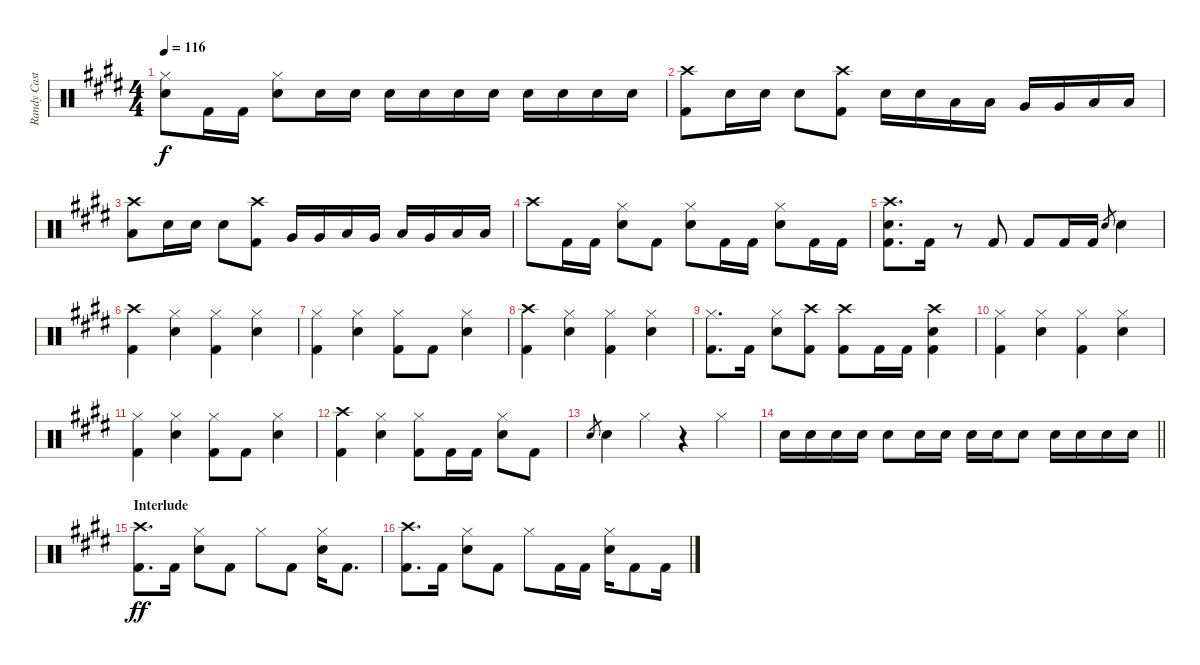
\track ("Randy Castillo" "Randy Cast") {instrument percussion}
\staff {score}
\articulation defaults
\ts (4 4)
\tempo 116
\clef neutral
\ks e
("Hi-Hat (closed)" "Snare (hit) 2").8{dy f} "Kick (hit) 2".16 "Kick (hit) 2".16 ("Hi-Hat (closed)" "Snare (hit) 2").8 "Snare (hit) 2".16 "Snare (hit) 2".16 "Snare (hit) 2".16 "Snare (hit) 2".16 "Snare (hit) 2".16 "Snare (hit) 2".16 "Snare (hit) 2".16 "Snare (hit) 2".16 "Snare (hit) 2".16 "Snare (hit) 2".16 |
("Kick (hit) 2" "Crash high (hit)").8 "Snare (hit) 2".16 "Snare (hit) 2".16 "Snare (hit) 2".8 ("Kick (hit) 2" "Crash high (hit)").8 "Snare (hit) 2".16 "Snare (hit) 2".16 "Low Tom (hit)".16 "Low Tom (hit)".16 "Very Low Tom (hit)".16 "Very Low Tom (hit)".16 "Low Floor Tom (hit)".16 "Low Floor Tom (hit)".16 |
("Low Tom (hit)" "Crash high (hit)").8 "Snare (hit) 2".16 "Snare (hit) 2".16 "Snare (hit) 2".8 ("Kick (hit) 2" "Crash high (hit)").8 "Very Low Tom (hit)".16 "Very Low Tom (hit)".16 "Low Tom (hit)".16 "Very Low Tom (hit)".16 "Low Tom (hit)".16 "Very Low Tom (hit)".16 "Low Floor Tom (hit)".16 "Low Floor Tom (hit)".16 |
"Crash high (hit)".8 "Kick (hit) 2".16 "Kick (hit) 2".16 ("Hi-Hat (closed)" "Snare (hit) 2").8 "Kick (hit) 2".8 ("Hi-Hat (closed)" "Snare (hit) 2").8 "Kick (hit) 2".16 "Kick (hit) 2".16 ("Hi-Hat (closed)" "Snare (hit) 2").8 "Kick (hit) 2".16 "Kick (hit) 2".16 |
("Snare (hit) 2" "Kick (hit) 2" "Crash high (hit)").8{d} "Kick (hit) 2".16 r.8 "Kick (hit) 2".8 "Kick (hit) 2".8 "Kick (hit) 2".16 "Kick (hit) 2".16 "Snare (hit) 2".8{gr} "Snare (hit) 2".4 |
("Kick (hit) 2" "Crash high (hit)").4 ("Hi-Hat (closed)" "Snare (hit) 2").4 ("Hi-Hat (closed)" "Kick (hit) 2").4 ("Hi-Hat (closed)" "Snare (hit) 2").4 |
("Hi-Hat (closed)" "Kick (hit) 2").4 ("Hi-Hat (closed)" "Snare (hit) 2").4 ("Hi-Hat (closed)" "Kick (hit) 2").8 "Kick (hit) 2".8 ("Hi-Hat (closed)" "Snare (hit) 2").4 |
("Kick (hit) 2" "Crash high (hit)").4 ("Hi-Hat (closed)" "Snare (hit) 2").4 ("Hi-Hat (closed)" "Kick (hit) 2").4 ("Hi-Hat (closed)" "Snare (hit) 2").4 |
("Hi-Hat (closed)" "Kick (hit) 2").8{d} "Kick (hit) 2".16 ("Hi-Hat (closed)" "Snare (hit) 2").8 ("Kick (hit) 2" "Crash high (hit)").8 ("Kick (hit) 2" "Crash high (hit)").8 "Kick (hit) 2".16 "Kick (hit) 2".16 ("Snare (hit) 2" "Kick (hit) 2" "Crash high (hit)").4 |
("Hi-Hat (closed)" "Kick (hit) 2").4 ("Hi-Hat (closed)" "Snare (hit) 2").4 ("Hi-Hat (closed)" "Kick (hit) 2").4 ("Hi-Hat (closed)" "Snare (hit) 2").4 |
("Hi-Hat (closed)" "Kick (hit) 2").4 ("Hi-Hat (closed)" "Snare (hit) 2").4 ("Hi-Hat (closed)" "Kick (hit) 2").8 "Kick (hit) 2".8 ("Hi-Hat (closed)" "Snare (hit) 2").4 |
("Kick (hit) 2" "Crash high (hit)").4 ("Hi-Hat (closed)" "Snare (hit) 2").4 ("Hi-Hat (closed)" "Kick (hit) 2").8 "Kick (hit) 2".16 "Kick (hit) 2".16 ("Hi-Hat (closed)" "Snare (hit) 2").8 "Kick (hit) 2".8 |
"Snare (hit) 2".8{gr} "Snare (hit) 2".4 "Hi-Hat (closed)".4 r.4 "Hi-Hat (closed)".4 |
\barLineRight lightlight "Snare (hit) 2".16 "Snare (hit) 2".16 "Snare (hit) 2".16 "Snare (hit) 2".16 "Snare (hit) 2".8 "Snare (hit) 2".16 "Snare (hit) 2".16 "Snare (hit) 2".16 "Snare (hit) 2".16 "Snare (hit) 2".8 "Snare (hit) 2".16 "Snare (hit) 2".16 "Snare (hit) 2".16 "Snare (hit) 2".16
|
\section ("" "Interlude")
("Kick (hit) 2" "Crash high (hit)").8{d dy ff} "Kick (hit) 2".16 ("Hi-Hat (closed)" "Snare (hit) 2").8 "Kick (hit) 2".8 "Hi-Hat (closed)".8 "Kick (hit) 2".8 ("Hi-Hat (closed)" "Snare (hit) 2").16 "Kick (hit) 2".8{d} |
("Kick (hit) 2" "Crash high (hit)").8{d} "Kick (hit) 2".16 ("Hi-Hat (closed)" "Snare (hit) 2").8 "Kick (hit) 2".8 "Hi-Hat (closed)".8 "Kick (hit) 2".16 "Kick (hit) 2".16 ("Hi-Hat (closed)" "Snare (hit) 2").16 "Kick (hit) 2".8 "Kick (hit) 2".16
